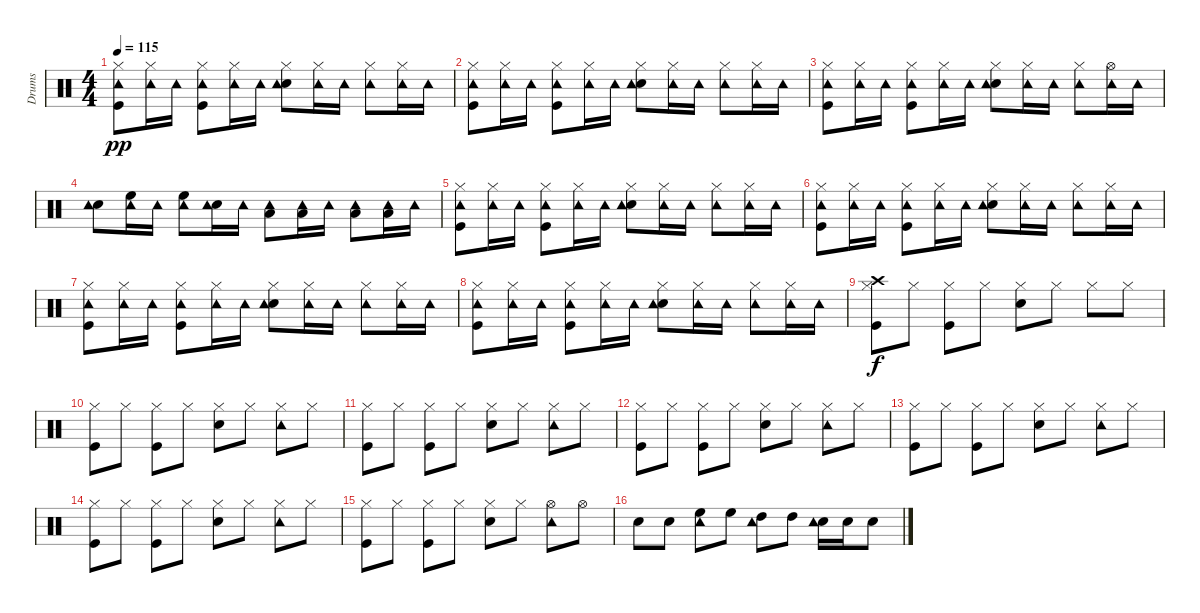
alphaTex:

\track ("Drums" "Drums") {instrument percussion}
\staff {score}
\articulation defaults
\ts (4 4)
\tempo 115
\clef neutral
\ks c
("Hi-Hat (closed)" "Tambourine (hit)" "Kick (hit)").8{dy pp} ("Hi-Hat (closed)" "Tambourine (hit)").16 "Tambourine (hit)".16 ("Hi-Hat (closed)" "Tambourine (hit)" "Kick (hit)").8 ("Hi-Hat (closed)" "Tambourine (hit)").16 "Tambourine (hit)".16 ("Hi-Hat (closed)" "Snare (hit) 2" "Tambourine (hit)").8 ("Hi-Hat (closed)" "Tambourine (hit)").16 "Tambourine (hit)".16 ("Hi-Hat (closed)" "Tambourine (hit)").8 ("Hi-Hat (closed)" "Tambourine (hit)").16 "Tambourine (hit)".16 |
("Hi-Hat (closed)" "Tambourine (hit)" "Kick (hit)").8 ("Hi-Hat (closed)" "Tambourine (hit)").16 "Tambourine (hit)".16 ("Hi-Hat (closed)" "Tambourine (hit)" "Kick (hit)").8 ("Hi-Hat (closed)" "Tambourine (hit)").16 "Tambourine (hit)".16 ("Hi-Hat (closed)" "Snare (hit) 2" "Tambourine (hit)").8 ("Hi-Hat (closed)" "Tambourine (hit)").16 "Tambourine (hit)".16 ("Hi-Hat (closed)" "Tambourine (hit)").8 ("Hi-Hat (closed)" "Tambourine (hit)").16 "Tambourine (hit)".16 |
("Hi-Hat (closed)" "Tambourine (hit)" "Kick (hit)").8 ("Hi-Hat (closed)" "Tambourine (hit)").16 "Tambourine (hit)".16 ("Hi-Hat (closed)" "Tambourine (hit)" "Kick (hit)").8 ("Hi-Hat (closed)" "Tambourine (hit)").16 "Tambourine (hit)".16 ("Hi-Hat (closed)" "Snare (hit) 2" "Tambourine (hit)").8 ("Hi-Hat (closed)" "Tambourine (hit)").16 "Tambourine (hit)".16 ("Hi-Hat (closed)" "Tambourine (hit)").8 ("Hi-Hat (open)" "Tambourine (hit)").16 "Tambourine (hit)".16 |
("Snare (hit) 2" "Tambourine (hit)").8 ("High Floor Tom (hit)" "Tambourine (hit)").16 "Tambourine (hit)".16 ("High Floor Tom (hit)" "Tambourine (hit)").8 ("Snare (hit) 2" "Tambourine (hit)").16 "Tambourine (hit)".16 ("Low Floor Tom (hit)" "Tambourine (hit)").8 ("Low Floor Tom (hit)" "Tambourine (hit)").16 "Tambourine (hit)".16 ("Low Floor Tom (hit)" "Tambourine (hit)").8 ("Low Floor Tom (hit)" "Tambourine (hit)").16 "Tambourine (hit)".16 |
("Hi-Hat (closed)" "Tambourine (hit)" "Kick (hit)").8 ("Hi-Hat (closed)" "Tambourine (hit)").16 "Tambourine (hit)".16 ("Hi-Hat (closed)" "Tambourine (hit)" "Kick (hit)").8 ("Hi-Hat (closed)" "Tambourine (hit)").16 "Tambourine (hit)".16 ("Hi-Hat (closed)" "Snare (hit) 2" "Tambourine (hit)").8 ("Hi-Hat (closed)" "Tambourine (hit)").16 "Tambourine (hit)".16 ("Hi-Hat (closed)" "Tambourine (hit)").8 ("Hi-Hat (closed)" "Tambourine (hit)").16 "Tambourine (hit)".16 |
("Hi-Hat (closed)" "Tambourine (hit)" "Kick (hit)").8 ("Hi-Hat (closed)" "Tambourine (hit)").16 "Tambourine (hit)".16 ("Hi-Hat (closed)" "Tambourine (hit)" "Kick (hit)").8 ("Hi-Hat (closed)" "Tambourine (hit)").16 "Tambourine (hit)".16 ("Hi-Hat (closed)" "Snare (hit) 2" "Tambourine (hit)").8 ("Hi-Hat (closed)" "Tambourine (hit)").16 "Tambourine (hit)".16 ("Hi-Hat (closed)" "Tambourine (hit)").8 ("Hi-Hat (closed)" "Tambourine (hit)").16 "Tambourine (hit)".16 |
("Hi-Hat (closed)" "Tambourine (hit)" "Kick (hit)").8 ("Hi-Hat (closed)" "Tambourine (hit)").16 "Tambourine (hit)".16 ("Hi-Hat (closed)" "Tambourine (hit)" "Kick (hit)").8 ("Hi-Hat (closed)" "Tambourine (hit)").16 "Tambourine (hit)".16 ("Hi-Hat (closed)" "Snare (hit) 2" "Tambourine (hit)").8 ("Hi-Hat (closed)" "Tambourine (hit)").16 "Tambourine (hit)".16 ("Hi-Hat (closed)" "Tambourine (hit)").8 ("Hi-Hat (closed)" "Tambourine (hit)").16 "Tambourine (hit)".16 |
("Hi-Hat (closed)" "Tambourine (hit)" "Kick (hit)").8 ("Hi-Hat (closed)" "Tambourine (hit)").16 "Tambourine (hit)".16 ("Hi-Hat (closed)" "Tambourine (hit)" "Kick (hit)").8 ("Hi-Hat (closed)" "Tambourine (hit)").16 "Tambourine (hit)".16 ("Hi-Hat (closed)" "Snare (hit) 2" "Tambourine (hit)").8 ("Hi-Hat (closed)" "Tambourine (hit)").16 "Tambourine (hit)".16 ("Hi-Hat (closed)" "Tambourine (hit)").8 ("Hi-Hat (closed)" "Tambourine (hit)").16 "Tambourine (hit)".16 |
("Hi-Hat (closed)" "Crash high (hit)" "Kick (hit)").8{dy f} "Hi-Hat (closed)".8 ("Hi-Hat (closed)" "Kick (hit)").8 "Hi-Hat (closed)".8 ("Hi-Hat (closed)" "Snare (hit) 2").8 "Hi-Hat (closed)".8 "Hi-Hat (closed)".8 "Hi-Hat (closed)".8 |
("Hi-Hat (closed)" "Kick (hit)").8 "Hi-Hat (closed)".8 ("Hi-Hat (closed)" "Kick (hit)").8 "Hi-Hat (closed)".8 ("Hi-Hat (closed)" "Snare (hit) 2").8 "Hi-Hat (closed)".8 ("Hi-Hat (closed)" "Tambourine (hit)").8 "Hi-Hat (closed)".8 |
("Hi-Hat (closed)" "Kick (hit)").8 "Hi-Hat (closed)".8 ("Hi-Hat (closed)" "Kick (hit)").8 "Hi-Hat (closed)".8 ("Hi-Hat (closed)" "Snare (hit) 2").8 "Hi-Hat (closed)".8 ("Hi-Hat (closed)" "Tambourine (hit)").8 "Hi-Hat (closed)".8 |
("Hi-Hat (closed)" "Kick (hit)").8 "Hi-Hat (closed)".8 ("Hi-Hat (closed)" "Kick (hit)").8 "Hi-Hat (closed)".8 ("Hi-Hat (closed)" "Snare (hit) 2").8 "Hi-Hat (closed)".8 ("Hi-Hat (closed)" "Tambourine (hit)").8 "Hi-Hat (closed)".8 |
("Hi-Hat (closed)" "Kick (hit)").8 "Hi-Hat (closed)".8 ("Hi-Hat (closed)" "Kick (hit)").8 "Hi-Hat (closed)".8 ("Hi-Hat (closed)" "Snare (hit) 2").8 "Hi-Hat (closed)".8 ("Hi-Hat (closed)" "Tambourine (hit)").8 "Hi-Hat (closed)".8 |
("Hi-Hat (closed)" "Kick (hit)").8 "Hi-Hat (closed)".8 ("Hi-Hat (closed)" "Kick (hit)").8 "Hi-Hat (closed)".8 ("Hi-Hat (closed)" "Snare (hit) 2").8 "Hi-Hat (closed)".8 ("Hi-Hat (closed)" "Tambourine (hit)").8 "Hi-Hat (closed)".8 |
("Hi-Hat (closed)" "Kick (hit)").8 "Hi-Hat (closed)".8 ("Hi-Hat (closed)" "Kick (hit)").8 "Hi-Hat (closed)".8 ("Hi-Hat (closed)" "Snare (hit) 2").8 "Hi-Hat (closed)".8 ("Hi-Hat (open)" "Tambourine (hit)").8 "Hi-Hat (open)".8 |
"Snare (hit) 2".8 "Snare (hit) 2".8 ("High Floor Tom (hit)" "Tambourine (hit)").8 "High Floor Tom (hit)".8 ("High Tom (hit)" "Tambourine (hit)").8 "High Tom (hit)".8 ("Snare (hit) 2" "Tambourine (hit)").16 "Snare (hit) 2".16 "Snare (hit) 2".8
